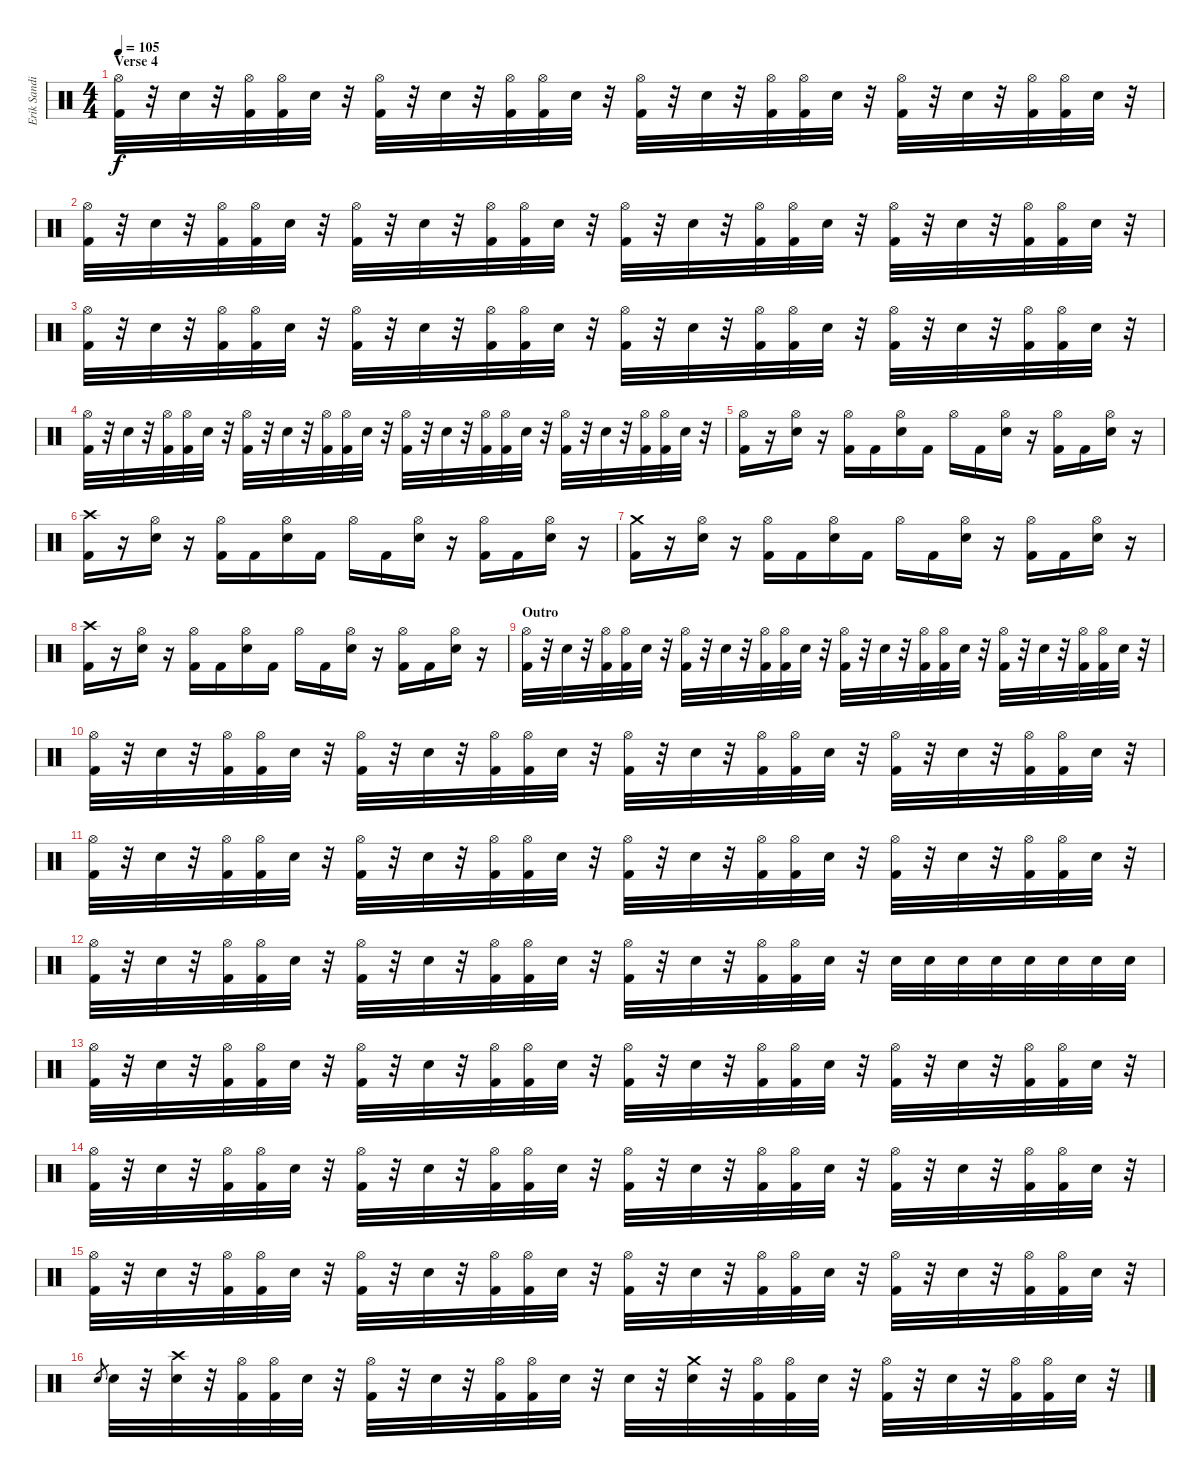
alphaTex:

\track ("Erik Sandin" "Erik Sandi") {instrument percussion}
\staff {score}
\articulation defaults
\ts (4 4)
\section ("" "Verse 4")
\tempo 105
\clef neutral
\ks c
("Hi-Hat (open)" "Kick (hit) 2").32{dy f} r.32 "Snare (hit) 2".32 r.32 ("Hi-Hat (open)" "Kick (hit) 2").32 ("Hi-Hat (open)" "Kick (hit) 2").32 "Snare (hit) 2".32 r.32 ("Hi-Hat (open)" "Kick (hit) 2").32 r.32 "Snare (hit) 2".32 r.32 ("Hi-Hat (open)" "Kick (hit) 2").32 ("Hi-Hat (open)" "Kick (hit) 2").32 "Snare (hit) 2".32 r.32 ("Hi-Hat (open)" "Kick (hit) 2").32 r.32 "Snare (hit) 2".32 r.32 ("Hi-Hat (open)" "Kick (hit) 2").32 ("Hi-Hat (open)" "Kick (hit) 2").32 "Snare (hit) 2".32 r.32 ("Hi-Hat (open)" "Kick (hit) 2").32 r.32 "Snare (hit) 2".32 r.32 ("Hi-Hat (open)" "Kick (hit) 2").32 ("Hi-Hat (open)" "Kick (hit) 2").32 "Snare (hit) 2".32 r.32 |
("Hi-Hat (open)" "Kick (hit) 2").32 r.32 "Snare (hit) 2".32 r.32 ("Hi-Hat (open)" "Kick (hit) 2").32 ("Hi-Hat (open)" "Kick (hit) 2").32 "Snare (hit) 2".32 r.32 ("Hi-Hat (open)" "Kick (hit) 2").32 r.32 "Snare (hit) 2".32 r.32 ("Hi-Hat (open)" "Kick (hit) 2").32 ("Hi-Hat (open)" "Kick (hit) 2").32 "Snare (hit) 2".32 r.32 ("Hi-Hat (open)" "Kick (hit) 2").32 r.32 "Snare (hit) 2".32 r.32 ("Hi-Hat (open)" "Kick (hit) 2").32 ("Hi-Hat (open)" "Kick (hit) 2").32 "Snare (hit) 2".32 r.32 ("Hi-Hat (open)" "Kick (hit) 2").32 r.32 "Snare (hit) 2".32 r.32 ("Hi-Hat (open)" "Kick (hit) 2").32 ("Hi-Hat (open)" "Kick (hit) 2").32 "Snare (hit) 2".32 r.32 |
("Hi-Hat (open)" "Kick (hit) 2").32 r.32 "Snare (hit) 2".32 r.32 ("Hi-Hat (open)" "Kick (hit) 2").32 ("Hi-Hat (open)" "Kick (hit) 2").32 "Snare (hit) 2".32 r.32 ("Hi-Hat (open)" "Kick (hit) 2").32 r.32 "Snare (hit) 2".32 r.32 ("Hi-Hat (open)" "Kick (hit) 2").32 ("Hi-Hat (open)" "Kick (hit) 2").32 "Snare (hit) 2".32 r.32 ("Hi-Hat (open)" "Kick (hit) 2").32 r.32 "Snare (hit) 2".32 r.32 ("Hi-Hat (open)" "Kick (hit) 2").32 ("Hi-Hat (open)" "Kick (hit) 2").32 "Snare (hit) 2".32 r.32 ("Hi-Hat (open)" "Kick (hit) 2").32 r.32 "Snare (hit) 2".32 r.32 ("Hi-Hat (open)" "Kick (hit) 2").32 ("Hi-Hat (open)" "Kick (hit) 2").32 "Snare (hit) 2".32 r.32 |
("Hi-Hat (open)" "Kick (hit) 2").32 r.32 "Snare (hit) 2".32 r.32 ("Hi-Hat (open)" "Kick (hit) 2").32 ("Hi-Hat (open)" "Kick (hit) 2").32 "Snare (hit) 2".32 r.32 ("Hi-Hat (open)" "Kick (hit) 2").32 r.32 "Snare (hit) 2".32 r.32 ("Hi-Hat (open)" "Kick (hit) 2").32 ("Hi-Hat (open)" "Kick (hit) 2").32 "Snare (hit) 2".32 r.32 ("Hi-Hat (open)" "Kick (hit) 2").32 r.32 "Snare (hit) 2".32 r.32 ("Hi-Hat (open)" "Kick (hit) 2").32 ("Hi-Hat (open)" "Kick (hit) 2").32 "Snare (hit) 2".32 r.32 ("Hi-Hat (open)" "Kick (hit) 2").32 r.32 "Snare (hit) 2".32 r.32 ("Hi-Hat (open)" "Kick (hit) 2").32 ("Hi-Hat (open)" "Kick (hit) 2").32 "Snare (hit) 2".32 r.32 |
("Hi-Hat (open)" "Kick (hit) 2").16 r.16 ("Hi-Hat (open)" "Snare (hit) 2").16 r.16 ("Hi-Hat (open)" "Kick (hit) 2").16 "Kick (hit) 2".16 ("Hi-Hat (open)" "Snare (hit) 2").16 "Kick (hit) 2".16 "Hi-Hat (open)".16 "Kick (hit) 2".16 ("Hi-Hat (open)" "Snare (hit) 2").16 r.16 ("Hi-Hat (open)" "Kick (hit) 2").16 "Kick (hit) 2".16 ("Hi-Hat (open)" "Snare (hit) 2").16 r.16 |
("Crash high (hit)" "Kick (hit) 2").16 r.16 ("Hi-Hat (open)" "Snare (hit) 2").16 r.16 ("Hi-Hat (open)" "Kick (hit) 2").16 "Kick (hit) 2".16 ("Hi-Hat (open)" "Snare (hit) 2").16 "Kick (hit) 2".16 "Hi-Hat (open)".16 "Kick (hit) 2".16 ("Hi-Hat (open)" "Snare (hit) 2").16 r.16 ("Hi-Hat (open)" "Kick (hit) 2").16 "Kick (hit) 2".16 ("Hi-Hat (open)" "Snare (hit) 2").16 r.16 |
("Crash medium (hit)" "Kick (hit) 2").16 r.16 ("Hi-Hat (open)" "Snare (hit) 2").16 r.16 ("Hi-Hat (open)" "Kick (hit) 2").16 "Kick (hit) 2".16 ("Hi-Hat (open)" "Snare (hit) 2").16 "Kick (hit) 2".16 "Hi-Hat (open)".16 "Kick (hit) 2".16 ("Hi-Hat (open)" "Snare (hit) 2").16 r.16 ("Hi-Hat (open)" "Kick (hit) 2").16 "Kick (hit) 2".16 ("Hi-Hat (open)" "Snare (hit) 2").16 r.16 |
("Crash high (hit)" "Kick (hit) 2").16 r.16 ("Hi-Hat (open)" "Snare (hit) 2").16 r.16 ("Hi-Hat (open)" "Kick (hit) 2").16 "Kick (hit) 2".16 ("Hi-Hat (open)" "Snare (hit) 2").16 "Kick (hit) 2".16 "Hi-Hat (open)".16 "Kick (hit) 2".16 ("Hi-Hat (open)" "Snare (hit) 2").16 r.16 ("Hi-Hat (open)" "Kick (hit) 2").16 "Kick (hit) 2".16 ("Hi-Hat (open)" "Snare (hit) 2").16 r.16 |
\section ("" "Outro")
("Hi-Hat (open)" "Kick (hit) 2").32 r.32 "Snare (hit) 2".32 r.32 ("Hi-Hat (open)" "Kick (hit) 2").32 ("Hi-Hat (open)" "Kick (hit) 2").32 "Snare (hit) 2".32 r.32 ("Hi-Hat (open)" "Kick (hit) 2").32 r.32 "Snare (hit) 2".32 r.32 ("Hi-Hat (open)" "Kick (hit) 2").32 ("Hi-Hat (open)" "Kick (hit) 2").32 "Snare (hit) 2".32 r.32 ("Hi-Hat (open)" "Kick (hit) 2").32 r.32 "Snare (hit) 2".32 r.32 ("Hi-Hat (open)" "Kick (hit) 2").32 ("Hi-Hat (open)" "Kick (hit) 2").32 "Snare (hit) 2".32 r.32 ("Hi-Hat (open)" "Kick (hit) 2").32 r.32 "Snare (hit) 2".32 r.32 ("Hi-Hat (open)" "Kick (hit) 2").32 ("Hi-Hat (open)" "Kick (hit) 2").32 "Snare (hit) 2".32 r.32 |
("Hi-Hat (open)" "Kick (hit) 2").32 r.32 "Snare (hit) 2".32 r.32 ("Hi-Hat (open)" "Kick (hit) 2").32 ("Hi-Hat (open)" "Kick (hit) 2").32 "Snare (hit) 2".32 r.32 ("Hi-Hat (open)" "Kick (hit) 2").32 r.32 "Snare (hit) 2".32 r.32 ("Hi-Hat (open)" "Kick (hit) 2").32 ("Hi-Hat (open)" "Kick (hit) 2").32 "Snare (hit) 2".32 r.32 ("Hi-Hat (open)" "Kick (hit) 2").32 r.32 "Snare (hit) 2".32 r.32 ("Hi-Hat (open)" "Kick (hit) 2").32 ("Hi-Hat (open)" "Kick (hit) 2").32 "Snare (hit) 2".32 r.32 ("Hi-Hat (open)" "Kick (hit) 2").32 r.32 "Snare (hit) 2".32 r.32 ("Hi-Hat (open)" "Kick (hit) 2").32 ("Hi-Hat (open)" "Kick (hit) 2").32 "Snare (hit) 2".32 r.32 |
("Hi-Hat (open)" "Kick (hit) 2").32 r.32 "Snare (hit) 2".32 r.32 ("Hi-Hat (open)" "Kick (hit) 2").32 ("Hi-Hat (open)" "Kick (hit) 2").32 "Snare (hit) 2".32 r.32 ("Hi-Hat (open)" "Kick (hit) 2").32 r.32 "Snare (hit) 2".32 r.32 ("Hi-Hat (open)" "Kick (hit) 2").32 ("Hi-Hat (open)" "Kick (hit) 2").32 "Snare (hit) 2".32 r.32 ("Hi-Hat (open)" "Kick (hit) 2").32 r.32 "Snare (hit) 2".32 r.32 ("Hi-Hat (open)" "Kick (hit) 2").32 ("Hi-Hat (open)" "Kick (hit) 2").32 "Snare (hit) 2".32 r.32 ("Hi-Hat (open)" "Kick (hit) 2").32 r.32 "Snare (hit) 2".32 r.32 ("Hi-Hat (open)" "Kick (hit) 2").32 ("Hi-Hat (open)" "Kick (hit) 2").32 "Snare (hit) 2".32 r.32 |
("Hi-Hat (open)" "Kick (hit) 2").32 r.32 "Snare (hit) 2".32 r.32 ("Hi-Hat (open)" "Kick (hit) 2").32 ("Hi-Hat (open)" "Kick (hit) 2").32 "Snare (hit) 2".32 r.32 ("Hi-Hat (open)" "Kick (hit) 2").32 r.32 "Snare (hit) 2".32 r.32 ("Hi-Hat (open)" "Kick (hit) 2").32 ("Hi-Hat (open)" "Kick (hit) 2").32 "Snare (hit) 2".32 r.32 ("Hi-Hat (open)" "Kick (hit) 2").32 r.32 "Snare (hit) 2".32 r.32 ("Hi-Hat (open)" "Kick (hit) 2").32 ("Hi-Hat (open)" "Kick (hit) 2").32 "Snare (hit) 2".32 r.32 "Snare (hit) 2".32 "Snare (hit) 2".32 "Snare (hit) 2".32 "Snare (hit) 2".32 "Snare (hit) 2".32 "Snare (hit) 2".32 "Snare (hit) 2".32 "Snare (hit) 2".32 |
("Hi-Hat (open)" "Kick (hit) 2").32 r.32 "Snare (hit) 2".32 r.32 ("Hi-Hat (open)" "Kick (hit) 2").32 ("Hi-Hat (open)" "Kick (hit) 2").32 "Snare (hit) 2".32 r.32 ("Hi-Hat (open)" "Kick (hit) 2").32 r.32 "Snare (hit) 2".32 r.32 ("Hi-Hat (open)" "Kick (hit) 2").32 ("Hi-Hat (open)" "Kick (hit) 2").32 "Snare (hit) 2".32 r.32 ("Hi-Hat (open)" "Kick (hit) 2").32 r.32 "Snare (hit) 2".32 r.32 ("Hi-Hat (open)" "Kick (hit) 2").32 ("Hi-Hat (open)" "Kick (hit) 2").32 "Snare (hit) 2".32 r.32 ("Hi-Hat (open)" "Kick (hit) 2").32 r.32 "Snare (hit) 2".32 r.32 ("Hi-Hat (open)" "Kick (hit) 2").32 ("Hi-Hat (open)" "Kick (hit) 2").32 "Snare (hit) 2".32 r.32 |
("Hi-Hat (open)" "Kick (hit) 2").32 r.32 "Snare (hit) 2".32 r.32 ("Hi-Hat (open)" "Kick (hit) 2").32 ("Hi-Hat (open)" "Kick (hit) 2").32 "Snare (hit) 2".32 r.32 ("Hi-Hat (open)" "Kick (hit) 2").32 r.32 "Snare (hit) 2".32 r.32 ("Hi-Hat (open)" "Kick (hit) 2").32 ("Hi-Hat (open)" "Kick (hit) 2").32 "Snare (hit) 2".32 r.32 ("Hi-Hat (open)" "Kick (hit) 2").32 r.32 "Snare (hit) 2".32 r.32 ("Hi-Hat (open)" "Kick (hit) 2").32 ("Hi-Hat (open)" "Kick (hit) 2").32 "Snare (hit) 2".32 r.32 ("Hi-Hat (open)" "Kick (hit) 2").32 r.32 "Snare (hit) 2".32 r.32 ("Hi-Hat (open)" "Kick (hit) 2").32 ("Hi-Hat (open)" "Kick (hit) 2").32 "Snare (hit) 2".32 r.32 |
("Hi-Hat (open)" "Kick (hit) 2").32 r.32 "Snare (hit) 2".32 r.32 ("Hi-Hat (open)" "Kick (hit) 2").32 ("Hi-Hat (open)" "Kick (hit) 2").32 "Snare (hit) 2".32 r.32 ("Hi-Hat (open)" "Kick (hit) 2").32 r.32 "Snare (hit) 2".32 r.32 ("Hi-Hat (open)" "Kick (hit) 2").32 ("Hi-Hat (open)" "Kick (hit) 2").32 "Snare (hit) 2".32 r.32 ("Hi-Hat (open)" "Kick (hit) 2").32 r.32 "Snare (hit) 2".32 r.32 ("Hi-Hat (open)" "Kick (hit) 2").32 ("Hi-Hat (open)" "Kick (hit) 2").32 "Snare (hit) 2".32 r.32 ("Hi-Hat (open)" "Kick (hit) 2").32 r.32 "Snare (hit) 2".32 r.32 ("Hi-Hat (open)" "Kick (hit) 2").32 ("Hi-Hat (open)" "Kick (hit) 2").32 "Snare (hit) 2".32 r.32 |
"Snare (hit) 2".8{gr} "Snare (hit) 2".32 r.32 ("Crash high (hit)" "Snare (hit) 2").32 r.32 ("Hi-Hat (open)" "Kick (hit) 2").32 ("Hi-Hat (open)" "Kick (hit) 2").32 "Snare (hit) 2".32 r.32 ("Hi-Hat (open)" "Kick (hit) 2").32 r.32 "Snare (hit) 2".32 r.32 ("Hi-Hat (open)" "Kick (hit) 2").32 ("Hi-Hat (open)" "Kick (hit) 2").32 "Snare (hit) 2".32 r.32 "Snare (hit) 2".32 r.32 ("Crash medium (hit)" "Snare (hit) 2").32 r.32 ("Hi-Hat (open)" "Kick (hit) 2").32 ("Hi-Hat (open)" "Kick (hit) 2").32 "Snare (hit) 2".32 r.32 ("Hi-Hat (open)" "Kick (hit) 2").32 r.32 "Snare (hit) 2".32 r.32 ("Hi-Hat (open)" "Kick (hit) 2").32 ("Hi-Hat (open)" "Kick (hit) 2").32 "Snare (hit) 2".32 r.32
